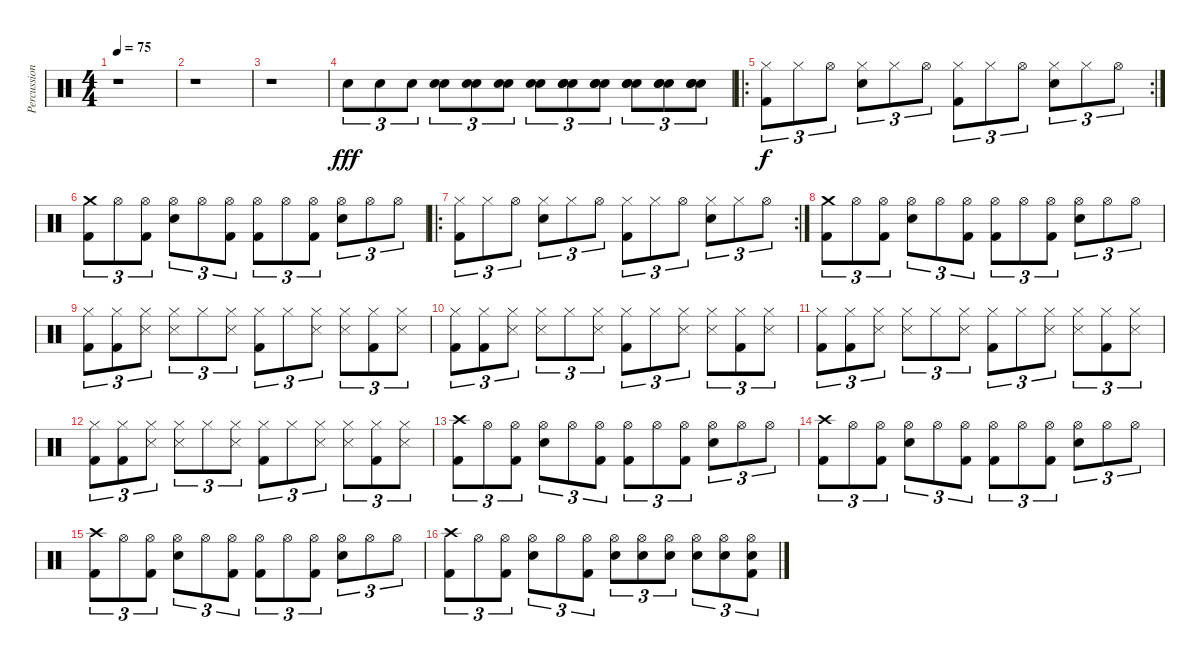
\track ("Percussions" "Percussion") {instrument percussion}
\staff {score}
\articulation defaults
\ts (4 4)
\tempo 75
\clef neutral
\ks c
r.1{dy f} |
r.1 |
r.1 |
"Electric Snare (hit)".8{tu (3 2) dy fff} "Electric Snare (hit)".8{tu (3 2)} "Electric Snare (hit)".8{tu (3 2)} ("Electric Snare (hit)" "Electric Snare (hit)").8{tu (3 2)} ("Electric Snare (hit)" "Electric Snare (hit)").8{tu (3 2)} ("Electric Snare (hit)" "Electric Snare (hit)").8{tu (3 2)} ("Electric Snare (hit)" "Electric Snare (hit)").8{tu (3 2)} ("Electric Snare (hit)" "Electric Snare (hit)" "Electric Snare (hit)").8{tu (3 2)} ("Electric Snare (hit)" "Electric Snare (hit)" "Electric Snare (hit)").8{tu (3 2)} ("Electric Snare (hit)" "Electric Snare (hit)" "Electric Snare (hit)").8{tu (3 2)} ("Electric Snare (hit)" "Electric Snare (hit)" "Electric Snare (hit)").8{tu (3 2)} ("Electric Snare (hit)" "Electric Snare (hit)" "Electric Snare (hit)").8{tu (3 2)} |
\ro
\rc 2
("Hi-Hat (closed)" "Kick (hit) 2").8{tu (3 2) dy f} "Hi-Hat (closed)".8{tu (3 2)} "Hi-Hat (open)".8{tu (3 2)} ("Hi-Hat (closed)" "Electric Snare (hit)").8{tu (3 2)} "Hi-Hat (closed)".8{tu (3 2)} "Hi-Hat (open)".8{tu (3 2)} ("Hi-Hat (closed)" "Kick (hit) 2").8{tu (3 2)} "Hi-Hat (closed)".8{tu (3 2)} "Hi-Hat (open)".8{tu (3 2)} ("Hi-Hat (closed)" "Electric Snare (hit)").8{tu (3 2)} "Hi-Hat (closed)".8{tu (3 2)} "Hi-Hat (open)".8{tu (3 2)} |
("Crash medium (hit)" "Kick (hit) 2").8{tu (3 2)} "Hi-Hat (open)".8{tu (3 2)} ("Hi-Hat (open)" "Kick (hit) 2").8{tu (3 2)} ("Hi-Hat (open)" "Electric Snare (hit)").8{tu (3 2)} "Hi-Hat (open)".8{tu (3 2)} ("Hi-Hat (open)" "Kick (hit) 2").8{tu (3 2)} ("Hi-Hat (open)" "Kick (hit) 2").8{tu (3 2)} "Hi-Hat (open)".8{tu (3 2)} ("Hi-Hat (open)" "Kick (hit) 2").8{tu (3 2)} ("Hi-Hat (open)" "Electric Snare (hit)").8{tu (3 2)} "Hi-Hat (open)".8{tu (3 2)} "Hi-Hat (open)".8{tu (3 2)} |
\ro
\rc 2
("Hi-Hat (closed)" "Kick (hit) 2").8{tu (3 2)} "Hi-Hat (closed)".8{tu (3 2)} "Hi-Hat (open)".8{tu (3 2)} ("Hi-Hat (closed)" "Electric Snare (hit)").8{tu (3 2)} "Hi-Hat (closed)".8{tu (3 2)} "Hi-Hat (open)".8{tu (3 2)} ("Hi-Hat (closed)" "Kick (hit) 2").8{tu (3 2)} "Hi-Hat (closed)".8{tu (3 2)} "Hi-Hat (open)".8{tu (3 2)} ("Hi-Hat (closed)" "Electric Snare (hit)").8{tu (3 2)} "Hi-Hat (closed)".8{tu (3 2)} "Hi-Hat (open)".8{tu (3 2)} |
("Crash medium (hit)" "Kick (hit) 2").8{tu (3 2)} "Hi-Hat (open)".8{tu (3 2)} ("Hi-Hat (open)" "Kick (hit) 2").8{tu (3 2)} ("Hi-Hat (open)" "Electric Snare (hit)").8{tu (3 2)} "Hi-Hat (open)".8{tu (3 2)} ("Hi-Hat (open)" "Kick (hit) 2").8{tu (3 2)} ("Hi-Hat (open)" "Kick (hit) 2").8{tu (3 2)} "Hi-Hat (open)".8{tu (3 2)} ("Hi-Hat (open)" "Kick (hit) 2").8{tu (3 2)} ("Hi-Hat (open)" "Electric Snare (hit)").8{tu (3 2)} "Hi-Hat (open)".8{tu (3 2)} "Hi-Hat (open)".8{tu (3 2)} |
("Hi-Hat (closed)" "Kick (hit) 2").8{tu (3 2)} ("Hi-Hat (closed)" "Kick (hit) 2").8{tu (3 2)} ("Hi-Hat (closed)" "Snare (side stick) 3").8{tu (3 2)} ("Hi-Hat (closed)" "Snare (side stick) 3").8{tu (3 2)} "Hi-Hat (closed)".8{tu (3 2)} ("Hi-Hat (closed)" "Snare (side stick) 3").8{tu (3 2)} ("Hi-Hat (closed)" "Kick (hit) 2").8{tu (3 2)} "Hi-Hat (closed)".8{tu (3 2)} ("Hi-Hat (closed)" "Snare (side stick) 3").8{tu (3 2)} ("Hi-Hat (closed)" "Snare (side stick) 3").8{tu (3 2)} ("Hi-Hat (closed)" "Kick (hit) 2").8{tu (3 2)} ("Hi-Hat (closed)" "Snare (side stick) 3").8{tu (3 2)} |
("Hi-Hat (closed)" "Kick (hit) 2").8{tu (3 2)} ("Hi-Hat (closed)" "Kick (hit) 2").8{tu (3 2)} ("Hi-Hat (closed)" "Snare (side stick) 3").8{tu (3 2)} ("Hi-Hat (closed)" "Snare (side stick) 3").8{tu (3 2)} "Hi-Hat (closed)".8{tu (3 2)} ("Hi-Hat (closed)" "Snare (side stick) 3").8{tu (3 2)} ("Hi-Hat (closed)" "Kick (hit) 2").8{tu (3 2)} "Hi-Hat (closed)".8{tu (3 2)} ("Hi-Hat (closed)" "Snare (side stick) 3").8{tu (3 2)} ("Hi-Hat (closed)" "Snare (side stick) 3").8{tu (3 2)} ("Hi-Hat (closed)" "Kick (hit) 2").8{tu (3 2)} ("Hi-Hat (closed)" "Snare (side stick) 3").8{tu (3 2)} |
("Hi-Hat (closed)" "Kick (hit) 2").8{tu (3 2)} ("Hi-Hat (closed)" "Kick (hit) 2").8{tu (3 2)} ("Hi-Hat (closed)" "Snare (side stick) 3").8{tu (3 2)} ("Hi-Hat (closed)" "Snare (side stick) 3").8{tu (3 2)} "Hi-Hat (closed)".8{tu (3 2)} ("Hi-Hat (closed)" "Snare (side stick) 3").8{tu (3 2)} ("Hi-Hat (closed)" "Kick (hit) 2").8{tu (3 2)} "Hi-Hat (closed)".8{tu (3 2)} ("Hi-Hat (closed)" "Snare (side stick) 3").8{tu (3 2)} ("Hi-Hat (closed)" "Snare (side stick) 3").8{tu (3 2)} ("Hi-Hat (closed)" "Kick (hit) 2").8{tu (3 2)} ("Hi-Hat (closed)" "Snare (side stick) 3").8{tu (3 2)} |
("Hi-Hat (closed)" "Kick (hit) 2").8{tu (3 2)} ("Hi-Hat (closed)" "Kick (hit) 2").8{tu (3 2)} ("Hi-Hat (closed)" "Snare (side stick) 3").8{tu (3 2)} ("Hi-Hat (closed)" "Snare (side stick) 3").8{tu (3 2)} "Hi-Hat (closed)".8{tu (3 2)} ("Hi-Hat (closed)" "Snare (side stick) 3").8{tu (3 2)} ("Hi-Hat (closed)" "Kick (hit) 2").8{tu (3 2)} "Hi-Hat (closed)".8{tu (3 2)} ("Hi-Hat (closed)" "Snare (side stick) 3").8{tu (3 2)} ("Hi-Hat (closed)" "Snare (side stick) 3").8{tu (3 2)} ("Hi-Hat (closed)" "Kick (hit) 2").8{tu (3 2)} ("Hi-Hat (closed)" "Snare (side stick) 3").8{tu (3 2)} |
("Crash high (hit)" "Kick (hit) 2").8{tu (3 2)} "Hi-Hat (open)".8{tu (3 2)} ("Hi-Hat (open)" "Kick (hit) 2").8{tu (3 2)} ("Hi-Hat (open)" "Electric Snare (hit)").8{tu (3 2)} "Hi-Hat (open)".8{tu (3 2)} ("Hi-Hat (open)" "Kick (hit) 2").8{tu (3 2)} ("Hi-Hat (open)" "Kick (hit) 2").8{tu (3 2)} "Hi-Hat (open)".8{tu (3 2)} ("Hi-Hat (open)" "Kick (hit) 2").8{tu (3 2)} ("Hi-Hat (open)" "Electric Snare (hit)").8{tu (3 2)} "Hi-Hat (open)".8{tu (3 2)} "Hi-Hat (open)".8{tu (3 2)} |
("Crash high (hit)" "Kick (hit) 2").8{tu (3 2)} "Hi-Hat (open)".8{tu (3 2)} ("Hi-Hat (open)" "Kick (hit) 2").8{tu (3 2)} ("Hi-Hat (open)" "Electric Snare (hit)").8{tu (3 2)} "Hi-Hat (open)".8{tu (3 2)} ("Hi-Hat (open)" "Kick (hit) 2").8{tu (3 2)} ("Hi-Hat (open)" "Kick (hit) 2").8{tu (3 2)} "Hi-Hat (open)".8{tu (3 2)} ("Hi-Hat (open)" "Kick (hit) 2").8{tu (3 2)} ("Hi-Hat (open)" "Electric Snare (hit)").8{tu (3 2)} "Hi-Hat (open)".8{tu (3 2)} "Hi-Hat (open)".8{tu (3 2)} |
("Crash high (hit)" "Kick (hit) 2").8{tu (3 2)} "Hi-Hat (open)".8{tu (3 2)} ("Hi-Hat (open)" "Kick (hit) 2").8{tu (3 2)} ("Hi-Hat (open)" "Electric Snare (hit)").8{tu (3 2)} "Hi-Hat (open)".8{tu (3 2)} ("Hi-Hat (open)" "Kick (hit) 2").8{tu (3 2)} ("Hi-Hat (open)" "Kick (hit) 2").8{tu (3 2)} "Hi-Hat (open)".8{tu (3 2)} ("Hi-Hat (open)" "Kick (hit) 2").8{tu (3 2)} ("Hi-Hat (open)" "Electric Snare (hit)").8{tu (3 2)} "Hi-Hat (open)".8{tu (3 2)} "Hi-Hat (open)".8{tu (3 2)} |
("Crash high (hit)" "Kick (hit) 2").8{tu (3 2)} "Hi-Hat (open)".8{tu (3 2)} ("Hi-Hat (open)" "Kick (hit) 2").8{tu (3 2)} ("Hi-Hat (open)" "Electric Snare (hit)").8{tu (3 2)} "Hi-Hat (open)".8{tu (3 2)} ("Hi-Hat (open)" "Kick (hit) 2").8{tu (3 2)} ("Hi-Hat (open)" "Electric Snare (hit)").8{tu (3 2)} ("Hi-Hat (open)" "Electric Snare (hit)").8{tu (3 2)} ("Hi-Hat (open)" "Electric Snare (hit)").8{tu (3 2)} ("Hi-Hat (open)" "Electric Snare (hit)").8{tu (3 2)} ("Hi-Hat (open)" "Electric Snare (hit)").8{tu (3 2)} ("Hi-Hat (open)" "Electric Snare (hit)" "Kick (hit) 2").8{tu (3 2)}
